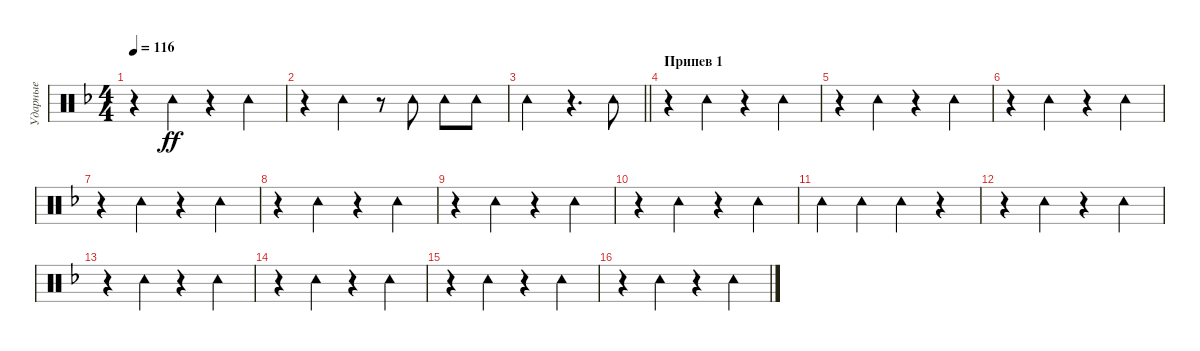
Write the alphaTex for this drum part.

\track ("Ударные" "Ударные") {instrument percussion}
\staff {score}
\articulation defaults
\ts (4 4)
\tempo 116
\clef neutral
\ks dminor
r.4{dy ff} "Tambourine (hit)".4 r.4 "Tambourine (hit)".4 |
r.4 "Tambourine (hit)".4 r.8 "Tambourine (hit)".8 "Tambourine (hit)".8 "Tambourine (hit)".8 |
\barLineRight lightlight "Tambourine (hit)".2
r.4{d} "Tambourine (hit)".8 |
\section ("" "Припев 1")
r.4 "Tambourine (hit)".4 r.4 "Tambourine (hit)".4 |
r.4 "Tambourine (hit)".4 r.4 "Tambourine (hit)".4 |
r.4 "Tambourine (hit)".4 r.4 "Tambourine (hit)".4 |
r.4 "Tambourine (hit)".4 r.4 "Tambourine (hit)".4 |
r.4 "Tambourine (hit)".4 r.4 "Tambourine (hit)".4 |
r.4 "Tambourine (hit)".4 r.4 "Tambourine (hit)".4 |
r.4 "Tambourine (hit)".4 r.4 "Tambourine (hit)".4 |
"Tambourine (hit)".4 "Tambourine (hit)".4 "Tambourine (hit)".4 r.4 |
r.4 "Tambourine (hit)".4 r.4 "Tambourine (hit)".4 |
r.4 "Tambourine (hit)".4 r.4 "Tambourine (hit)".4 |
r.4 "Tambourine (hit)".4 r.4 "Tambourine (hit)".4 |
r.4 "Tambourine (hit)".4 r.4 "Tambourine (hit)".4 |
r.4 "Tambourine (hit)".4 r.4 "Tambourine (hit)".4
